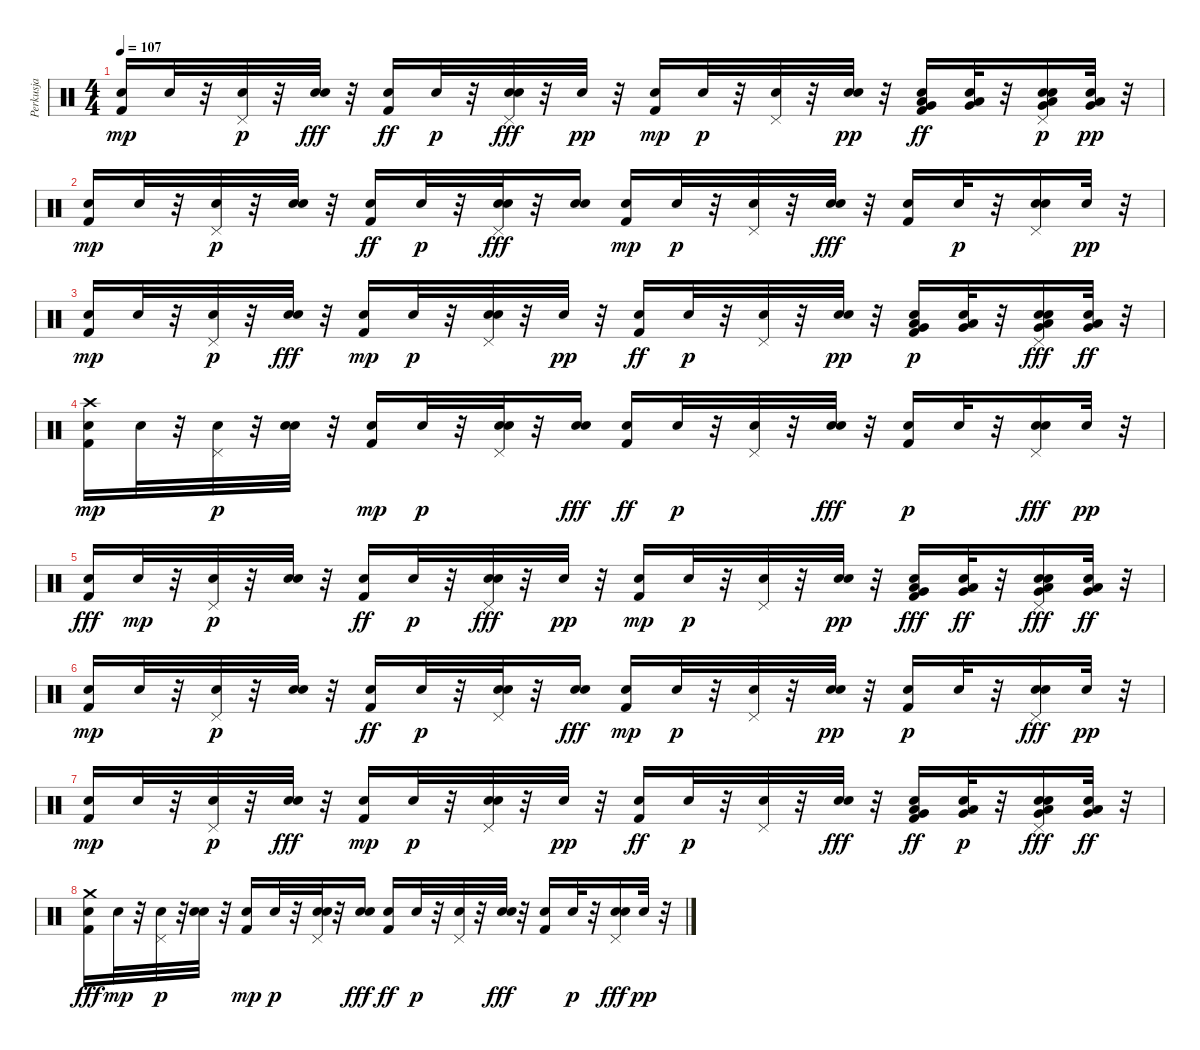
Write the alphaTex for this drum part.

\track ("Perkusja" "Perkusja") {instrument percussion}
\staff {score}
\articulation defaults
\ts (4 4)
\tempo 107
\clef neutral
\ks c
("Kick (hit) 2" "Snare (hit) 2").16{dy mp} "Snare (hit) 2".32 r.32 ("Snare (hit) 2" "Pedal Hi-Hat (hit)").32{dy p} r.32 ("Snare (hit) 2" "Electric Snare (hit)").32{dy fff} r.32 ("Snare (hit) 2" "Kick (hit) 2").16{dy ff} "Snare (hit) 2".32{dy p} r.32 ("Snare (hit) 2" "Electric Snare (hit)" "Pedal Hi-Hat (hit)").32{dy fff} r.32 "Snare (hit) 2".32{dy pp} r.32 ("Kick (hit) 2" "Snare (hit) 2").16{dy mp} "Snare (hit) 2".32{dy p} r.32 ("Snare (hit) 2" "Pedal Hi-Hat (hit)").32 r.32 ("Electric Snare (hit)" "Snare (hit) 2").32{dy pp} r.32 ("Snare (hit) 2" "Kick (hit) 2" "Low Floor Tom (hit)" "Very Low Tom (hit)").16{dy ff} ("Very Low Tom (hit)" "Snare (hit) 2" "Low Floor Tom (hit)").32 r.32 ("Very Low Tom (hit)" "Low Floor Tom (hit)" "Pedal Hi-Hat (hit)" "Electric Snare (hit)" "Snare (hit) 2").16{dy p} ("Low Floor Tom (hit)" "Very Low Tom (hit)" "Snare (hit) 2").32{dy pp} r.32 |
("Kick (hit) 2" "Snare (hit) 2").16{dy mp} "Snare (hit) 2".32 r.32 ("Pedal Hi-Hat (hit)" "Snare (hit) 2").32{dy p} r.32 ("Electric Snare (hit)" "Snare (hit) 2").32 r.32 ("Snare (hit) 2" "Kick (hit) 2").16{dy ff} "Snare (hit) 2".32{dy p} r.32 ("Pedal Hi-Hat (hit)" "Snare (hit) 2" "Electric Snare (hit)").32{dy fff} r.32 ("Snare (hit) 2" "Electric Snare (hit)").16 ("Kick (hit) 2" "Snare (hit) 2").16{dy mp} "Snare (hit) 2".32{dy p} r.32 ("Snare (hit) 2" "Pedal Hi-Hat (hit)").32 r.32 ("Snare (hit) 2" "Electric Snare (hit)").32{dy fff} r.32 ("Snare (hit) 2" "Kick (hit) 2").16 "Snare (hit) 2".32{dy p} r.32 ("Electric Snare (hit)" "Snare (hit) 2" "Pedal Hi-Hat (hit)").16 "Snare (hit) 2".32{dy pp} r.32 |
("Kick (hit) 2" "Snare (hit) 2").16{dy mp} "Snare (hit) 2".32 r.32 ("Snare (hit) 2" "Pedal Hi-Hat (hit)").32{dy p} r.32 ("Snare (hit) 2" "Electric Snare (hit)").32{dy fff} r.32 ("Kick (hit) 2" "Snare (hit) 2").16{dy mp} "Snare (hit) 2".32{dy p} r.32 ("Electric Snare (hit)" "Snare (hit) 2" "Pedal Hi-Hat (hit)").32 r.32 "Snare (hit) 2".32{dy pp} r.32 ("Snare (hit) 2" "Kick (hit) 2").16{dy ff} "Snare (hit) 2".32{dy p} r.32 ("Snare (hit) 2" "Pedal Hi-Hat (hit)").32 r.32 ("Electric Snare (hit)" "Snare (hit) 2").32{dy pp} r.32 ("Low Floor Tom (hit)" "Kick (hit) 2" "Very Low Tom (hit)" "Snare (hit) 2").16{dy p} ("Low Floor Tom (hit)" "Very Low Tom (hit)" "Snare (hit) 2").32 r.32 ("Very Low Tom (hit)" "Snare (hit) 2" "Low Floor Tom (hit)" "Electric Snare (hit)" "Pedal Hi-Hat (hit)").16{dy fff} ("Very Low Tom (hit)" "Snare (hit) 2" "Low Floor Tom (hit)").32{dy ff} r.32 |
("Crash high (hit)" "Kick (hit) 2" "Snare (hit) 2").16{dy mp} "Snare (hit) 2".32 r.32 ("Snare (hit) 2" "Pedal Hi-Hat (hit)").32{dy p} r.32 ("Electric Snare (hit)" "Snare (hit) 2").32 r.32 ("Kick (hit) 2" "Snare (hit) 2").16{dy mp} "Snare (hit) 2".32{dy p} r.32 ("Electric Snare (hit)" "Snare (hit) 2" "Pedal Hi-Hat (hit)").32 r.32 ("Snare (hit) 2" "Electric Snare (hit)").16{dy fff} ("Snare (hit) 2" "Kick (hit) 2").16{dy ff} "Snare (hit) 2".32{dy p} r.32 ("Pedal Hi-Hat (hit)" "Snare (hit) 2").32 r.32 ("Snare (hit) 2" "Electric Snare (hit)").32{dy fff} r.32 ("Kick (hit) 2" "Snare (hit) 2").16{dy p} "Snare (hit) 2".32 r.32 ("Snare (hit) 2" "Pedal Hi-Hat (hit)" "Electric Snare (hit)").16{dy fff} "Snare (hit) 2".32{dy pp} r.32 |
("Snare (hit) 2" "Kick (hit) 2").16{dy fff} "Snare (hit) 2".32{dy mp} r.32 ("Pedal Hi-Hat (hit)" "Snare (hit) 2").32{dy p} r.32 ("Electric Snare (hit)" "Snare (hit) 2").32 r.32 ("Snare (hit) 2" "Kick (hit) 2").16{dy ff} "Snare (hit) 2".32{dy p} r.32 ("Pedal Hi-Hat (hit)" "Snare (hit) 2" "Electric Snare (hit)").32{dy fff} r.32 "Snare (hit) 2".32{dy pp} r.32 ("Kick (hit) 2" "Snare (hit) 2").16{dy mp} "Snare (hit) 2".32{dy p} r.32 ("Snare (hit) 2" "Pedal Hi-Hat (hit)").32 r.32 ("Electric Snare (hit)" "Snare (hit) 2").32{dy pp} r.32 ("Snare (hit) 2" "Low Floor Tom (hit)" "Very Low Tom (hit)" "Kick (hit) 2").16{dy fff} ("Snare (hit) 2" "Very Low Tom (hit)" "Low Floor Tom (hit)").32{dy ff} r.32 ("Snare (hit) 2" "Electric Snare (hit)" "Very Low Tom (hit)" "Low Floor Tom (hit)" "Pedal Hi-Hat (hit)").16{dy fff} ("Snare (hit) 2" "Very Low Tom (hit)" "Low Floor Tom (hit)").32{dy ff} r.32 |
("Kick (hit) 2" "Snare (hit) 2").16{dy mp} "Snare (hit) 2".32 r.32 ("Snare (hit) 2" "Pedal Hi-Hat (hit)").32{dy p} r.32 ("Electric Snare (hit)" "Snare (hit) 2").32 r.32 ("Snare (hit) 2" "Kick (hit) 2").16{dy ff} "Snare (hit) 2".32{dy p} r.32 ("Electric Snare (hit)" "Snare (hit) 2" "Pedal Hi-Hat (hit)").32 r.32 ("Snare (hit) 2" "Electric Snare (hit)").16{dy fff} ("Kick (hit) 2" "Snare (hit) 2").16{dy mp} "Snare (hit) 2".32{dy p} r.32 ("Pedal Hi-Hat (hit)" "Snare (hit) 2").32 r.32 ("Electric Snare (hit)" "Snare (hit) 2").32{dy pp} r.32 ("Kick (hit) 2" "Snare (hit) 2").16{dy p} "Snare (hit) 2".32 r.32 ("Snare (hit) 2" "Pedal Hi-Hat (hit)" "Electric Snare (hit)").16{dy fff} "Snare (hit) 2".32{dy pp} r.32 |
("Kick (hit) 2" "Snare (hit) 2").16{dy mp} "Snare (hit) 2".32 r.32 ("Snare (hit) 2" "Pedal Hi-Hat (hit)").32{dy p} r.32 ("Snare (hit) 2" "Electric Snare (hit)").32{dy fff} r.32 ("Kick (hit) 2" "Snare (hit) 2").16{dy mp} "Snare (hit) 2".32{dy p} r.32 ("Pedal Hi-Hat (hit)" "Electric Snare (hit)" "Snare (hit) 2").32 r.32 "Snare (hit) 2".32{dy pp} r.32 ("Snare (hit) 2" "Kick (hit) 2").16{dy ff} "Snare (hit) 2".32{dy p} r.32 ("Snare (hit) 2" "Pedal Hi-Hat (hit)").32 r.32 ("Snare (hit) 2" "Electric Snare (hit)").32{dy fff} r.32 ("Kick (hit) 2" "Snare (hit) 2" "Low Floor Tom (hit)" "Very Low Tom (hit)").16{dy ff} ("Low Floor Tom (hit)" "Very Low Tom (hit)" "Snare (hit) 2").32{dy p} r.32 ("Very Low Tom (hit)" "Electric Snare (hit)" "Snare (hit) 2" "Pedal Hi-Hat (hit)" "Low Floor Tom (hit)").16{dy fff} ("Very Low Tom (hit)" "Snare (hit) 2" "Low Floor Tom (hit)").32{dy ff} r.32 |
("Kick (hit) 2" "Snare (hit) 2" "Crash medium (hit)").16{dy fff} "Snare (hit) 2".32{dy mp} r.32 ("Snare (hit) 2" "Pedal Hi-Hat (hit)").32{dy p} r.32 ("Electric Snare (hit)" "Snare (hit) 2").32 r.32 ("Kick (hit) 2" "Snare (hit) 2").16{dy mp} "Snare (hit) 2".32{dy p} r.32 ("Electric Snare (hit)" "Snare (hit) 2" "Pedal Hi-Hat (hit)").32 r.32 ("Snare (hit) 2" "Electric Snare (hit)").16{dy fff} ("Snare (hit) 2" "Kick (hit) 2").16{dy ff} "Snare (hit) 2".32{dy p} r.32 ("Pedal Hi-Hat (hit)" "Snare (hit) 2").32 r.32 ("Snare (hit) 2" "Electric Snare (hit)").32{dy fff} r.32 ("Snare (hit) 2" "Kick (hit) 2").16 "Snare (hit) 2".32{dy p} r.32 ("Snare (hit) 2" "Pedal Hi-Hat (hit)" "Electric Snare (hit)").16{dy fff} "Snare (hit) 2".32{dy pp} r.32
